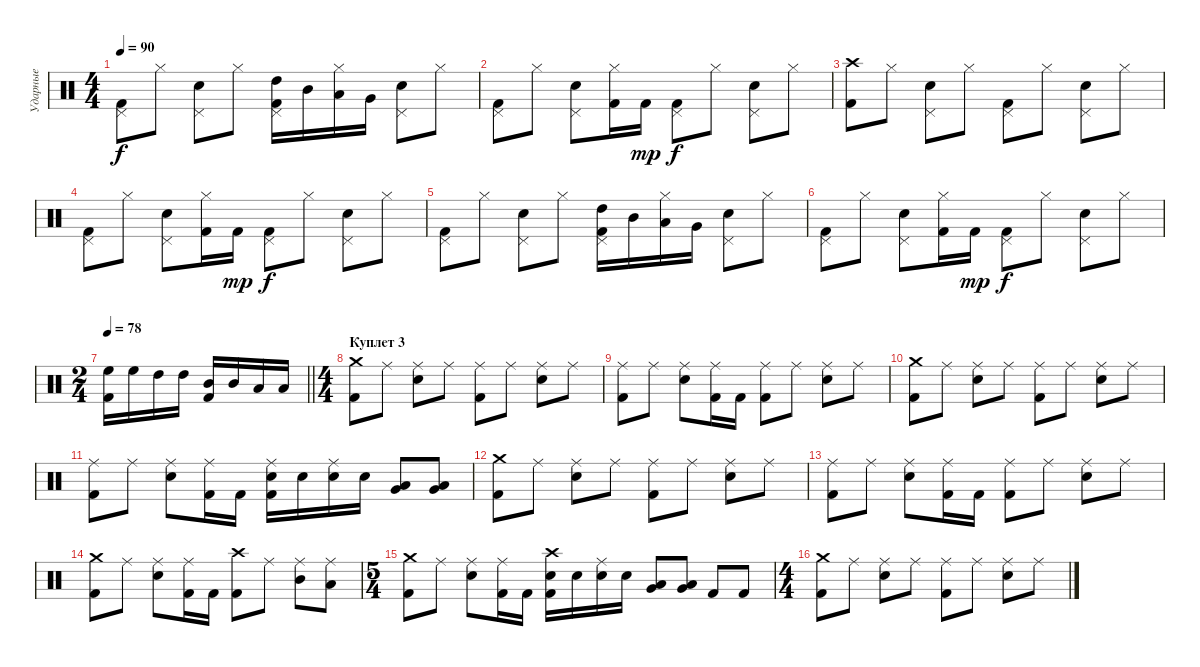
\track ("Ударные" "Ударные") {instrument percussion}
\staff {score}
\articulation defaults
\ts (4 4)
\tempo 90
\clef neutral
\ks c
("Pedal Hi-Hat (hit)" "Kick (hit) 2").8{dy f} "Hi-Hat (closed)".8 ("Pedal Hi-Hat (hit)" "Snare (hit) 2").8 "Hi-Hat (closed)".8 ("Pedal Hi-Hat (hit)" "High Tom (hit)" "Kick (hit) 2").16 "Mid Tom (hit)".16 ("Hi-Hat (closed)" "Low Tom (hit)").16 "Very Low Tom (hit)".16 ("Pedal Hi-Hat (hit)" "Snare (hit) 2").8 "Hi-Hat (closed)".8 |
("Pedal Hi-Hat (hit)" "Kick (hit) 2").8 "Hi-Hat (closed)".8 ("Pedal Hi-Hat (hit)" "Snare (hit) 2").8 ("Hi-Hat (closed)" "Kick (hit) 2").16 "Kick (hit) 2".16{dy mp} ("Pedal Hi-Hat (hit)" "Kick (hit) 2").8{dy f} "Hi-Hat (closed)".8 ("Pedal Hi-Hat (hit)" "Snare (hit) 2").8 "Hi-Hat (closed)".8 |
("Crash high (hit)" "Kick (hit) 2").8 "Hi-Hat (closed)".8 ("Pedal Hi-Hat (hit)" "Snare (hit) 2").8 "Hi-Hat (closed)".8 ("Pedal Hi-Hat (hit)" "Kick (hit) 2").8 "Hi-Hat (closed)".8 ("Pedal Hi-Hat (hit)" "Snare (hit) 2").8 "Hi-Hat (closed)".8 |
("Pedal Hi-Hat (hit)" "Kick (hit) 2").8 "Hi-Hat (closed)".8 ("Pedal Hi-Hat (hit)" "Snare (hit) 2").8 ("Hi-Hat (closed)" "Kick (hit) 2").16 "Kick (hit) 2".16{dy mp} ("Pedal Hi-Hat (hit)" "Kick (hit) 2").8{dy f} "Hi-Hat (closed)".8 ("Pedal Hi-Hat (hit)" "Snare (hit) 2").8 "Hi-Hat (closed)".8 |
("Pedal Hi-Hat (hit)" "Kick (hit) 2").8 "Hi-Hat (closed)".8 ("Pedal Hi-Hat (hit)" "Snare (hit) 2").8 "Hi-Hat (closed)".8 ("Pedal Hi-Hat (hit)" "High Tom (hit)" "Kick (hit) 2").16 "Mid Tom (hit)".16 ("Hi-Hat (closed)" "Low Tom (hit)").16 "Very Low Tom (hit)".16 ("Pedal Hi-Hat (hit)" "Snare (hit) 2").8 "Hi-Hat (closed)".8 |
("Pedal Hi-Hat (hit)" "Kick (hit) 2").8 "Hi-Hat (closed)".8 ("Pedal Hi-Hat (hit)" "Snare (hit) 2").8 ("Hi-Hat (closed)" "Kick (hit) 2").16 "Kick (hit) 2".16{dy mp} ("Pedal Hi-Hat (hit)" "Kick (hit) 2").8{dy f} "Hi-Hat (closed)".8 ("Pedal Hi-Hat (hit)" "Snare (hit) 2").8 "Hi-Hat (closed)".8 |
\ts (2 4)
\tempo 78
\barLineRight lightlight
("High Floor Tom (hit)" "Kick (hit) 2").16 "High Floor Tom (hit)".16 "High Tom (hit)".16 "High Tom (hit)".16 ("Mid Tom (hit)" "Kick (hit) 2").16 "Mid Tom (hit)".16 "Low Tom (hit)".16 "Low Tom (hit)".16 |
\ts (4 4)
\section ("" "Куплет 3")
("Crash medium (hit)" "Kick (hit) 2").8 "Ride (middle)".8 ("Ride (middle)" "Snare (hit) 2").8 "Ride (middle)".8 ("Ride (middle)" "Kick (hit) 2").8 "Ride (middle)".8 ("Ride (middle)" "Snare (hit) 2").8 "Ride (middle)".8 |
("Ride (middle)" "Kick (hit) 2").8 "Ride (middle)".8 ("Ride (middle)" "Snare (hit) 2").8 ("Ride (middle)" "Kick (hit) 2").16 "Kick (hit) 2".16 ("Ride (middle)" "Kick (hit) 2").8 "Ride (middle)".8 ("Ride (middle)" "Snare (hit) 2").8 "Ride (middle)".8 |
("Crash medium (hit)" "Kick (hit) 2").8 "Ride (middle)".8 ("Ride (middle)" "Snare (hit) 2").8 "Ride (middle)".8 ("Ride (middle)" "Kick (hit) 2").8 "Ride (middle)".8 ("Ride (middle)" "Snare (hit) 2").8 "Ride (middle)".8 |
("Ride (middle)" "Kick (hit) 2").8 "Ride (middle)".8 ("Ride (middle)" "Snare (hit) 2").8 ("Ride (middle)" "Kick (hit) 2").16 "Kick (hit) 2".16 ("Ride (middle)" "Snare (hit) 2" "Kick (hit) 2").16 "Snare (hit) 2".16 ("Ride (middle)" "Snare (hit) 2").16 "Snare (hit) 2".16 ("Very Low Tom (hit)" "Low Floor Tom (hit)").8 ("Very Low Tom (hit)" "Low Floor Tom (hit)").8 |
("Crash medium (hit)" "Kick (hit) 2").8 "Ride (middle)".8 ("Ride (middle)" "Snare (hit) 2").8 "Ride (middle)".8 ("Ride (middle)" "Kick (hit) 2").8 "Ride (middle)".8 ("Ride (middle)" "Snare (hit) 2").8 "Ride (middle)".8 |
("Ride (middle)" "Kick (hit) 2").8 "Ride (middle)".8 ("Ride (middle)" "Snare (hit) 2").8 ("Ride (middle)" "Kick (hit) 2").16 "Kick (hit) 2".16 ("Ride (middle)" "Kick (hit) 2").8 "Ride (middle)".8 ("Ride (middle)" "Snare (hit) 2").8 "Ride (middle)".8 |
("Crash medium (hit)" "Kick (hit) 2").8 "Ride (middle)".8 ("Ride (middle)" "Snare (hit) 2").8 ("Ride (middle)" "Kick (hit) 2").16 "Kick (hit) 2".16 ("Crash high (hit)" "Kick (hit) 2").8 "Ride (middle)".8 ("Ride (middle)" "Mid Tom (hit)").8 ("Ride (middle)" "Low Tom (hit)").8 |
\ts (5 4)
("Crash medium (hit)" "Kick (hit) 2").8 "Ride (middle)".8 ("Ride (middle)" "Snare (hit) 2").8 ("Ride (middle)" "Kick (hit) 2").16 "Kick (hit) 2".16 ("Crash high (hit)" "Snare (hit) 2" "Kick (hit) 2").16 "Snare (hit) 2".16 ("Ride (middle)" "Snare (hit) 2").16 "Snare (hit) 2".16 ("Very Low Tom (hit)" "Low Floor Tom (hit)").8 ("Very Low Tom (hit)" "Low Floor Tom (hit)").8 "Kick (hit) 2".8 "Kick (hit) 2".8 |
\ts (4 4)
("Crash medium (hit)" "Kick (hit) 2").8 "Ride (middle)".8 ("Ride (middle)" "Snare (hit) 2").8 "Ride (middle)".8 ("Ride (middle)" "Kick (hit) 2").8 "Ride (middle)".8 ("Ride (middle)" "Snare (hit) 2").8 "Ride (middle)".8
